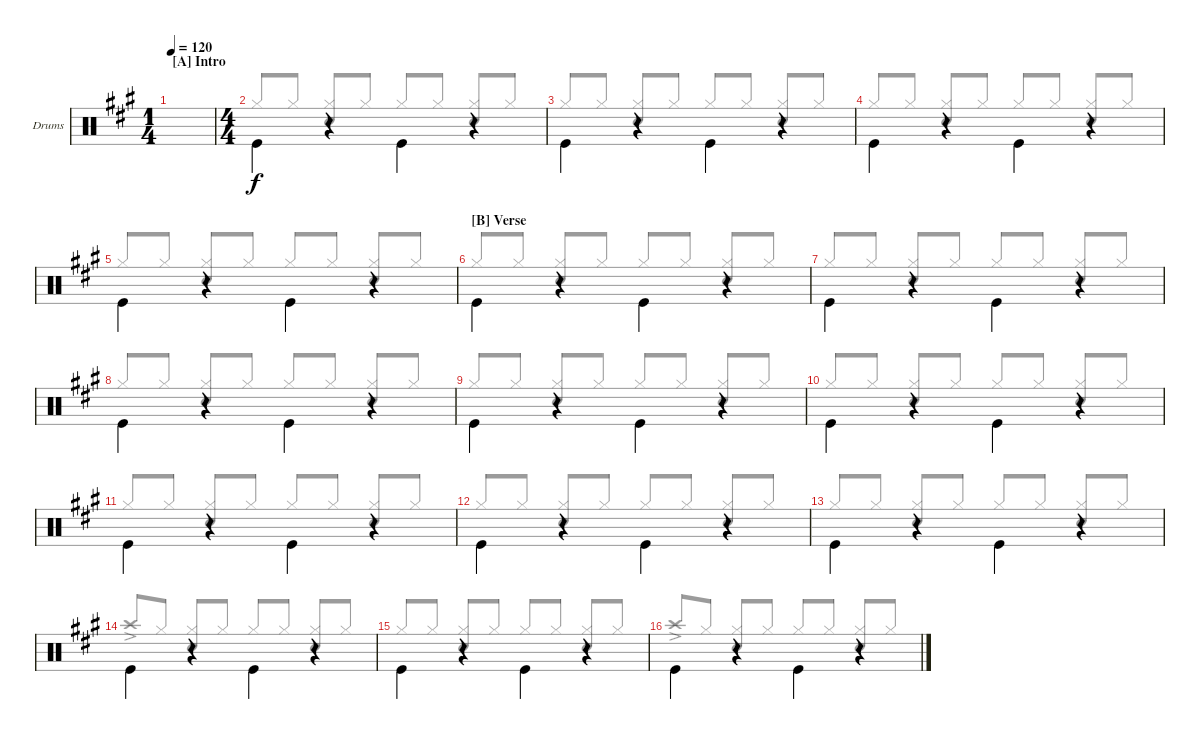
\bracketExtendMode groupsimilarinstruments
\firstSystemTrackNameOrientation horizontal
\otherSystemsTrackNameOrientation horizontal
\track ("Drum" "Drums") {instrument percussion}
\staff {score}
\articulation defaults
\voice
\ts (1 4)
\section ("A" "Intro")
\tempo 120
\clef neutral
\scale
1.08827
\ks a
|
\ts (4 4)
\scale
0.911728 "Kick (hit)".4{beam invert} r.4 "Kick (hit)".4{beam invert} r.4 |
\scale
1.05801 "Kick (hit)".4{beam invert} r.4 "Kick (hit)".4{beam invert} r.4 |
\scale
0.941992 "Kick (hit)".4{beam invert} r.4 "Kick (hit)".4{beam invert} r.4 |
\scale
1.05801 "Kick (hit)".4{beam invert} r.4 "Kick (hit)".4{beam invert} r.4 |
\section ("B" "Verse")
\scale
0.941992 "Kick (hit)".4{beam invert} r.4 "Kick (hit)".4{beam invert} r.4 |
\scale
1.05801 "Kick (hit)".4{beam invert} r.4 "Kick (hit)".4{beam invert} r.4 |
\scale
0.941992 "Kick (hit)".4{beam invert} r.4 "Kick (hit)".4{beam invert} r.4 |
\scale
1.05801 "Kick (hit)".4{beam invert} r.4 "Kick (hit)".4{beam invert} r.4 |
\scale
0.941992 "Kick (hit)".4{beam invert} r.4 "Kick (hit)".4{beam invert} r.4 |
\scale
1.05801 "Kick (hit)".4{beam invert} r.4 "Kick (hit)".4{beam invert} r.4 |
\scale
0.941992 "Kick (hit)".4{beam invert} r.4 "Kick (hit)".4{beam invert} r.4 |
\scale
1.05801 "Kick (hit)".4{beam invert} r.4 "Kick (hit)".4{beam invert} r.4 |
\scale
0.941992 "Kick (hit)".4{beam invert} r.4 "Kick (hit)".4{beam invert} r.4 |
\scale
1.05801 "Kick (hit)".4{beam invert} r.4 "Kick (hit)".4{beam invert} r.4 |
\scale
0.941992 "Kick (hit)".4{beam invert} r.4 "Kick (hit)".4{beam invert} r.4
\voice
\clef neutral
\ottava regular
\simile none
\scale
1.08827
\ks a
|
\scale
0.911728 "Hi-Hat (closed)".8{beam invert} "Hi-Hat (closed)".8 ("Hi-Hat (closed)" "Snare (hit) 2").8{beam invert} "Hi-Hat (closed)".8 "Hi-Hat (closed)".8{beam invert} "Hi-Hat (closed)".8 ("Hi-Hat (closed)" "Snare (hit) 2").8{beam invert} "Hi-Hat (closed)".8 |
\scale
1.05801 "Hi-Hat (closed)".8{beam invert} "Hi-Hat (closed)".8 ("Hi-Hat (closed)" "Snare (hit) 2").8{beam invert} "Hi-Hat (closed)".8 "Hi-Hat (closed)".8{beam invert} "Hi-Hat (closed)".8 ("Hi-Hat (closed)" "Snare (hit) 2").8{beam invert} "Hi-Hat (closed)".8 |
\scale
0.941992 "Hi-Hat (closed)".8{beam invert} "Hi-Hat (closed)".8 ("Hi-Hat (closed)" "Snare (hit) 2").8{beam invert} "Hi-Hat (closed)".8 "Hi-Hat (closed)".8{beam invert} "Hi-Hat (closed)".8 ("Hi-Hat (closed)" "Snare (hit) 2").8{beam invert} "Hi-Hat (closed)".8 |
\scale
1.05801 "Hi-Hat (closed)".8{beam invert} "Hi-Hat (closed)".8 ("Hi-Hat (closed)" "Snare (hit) 2").8{beam invert} "Hi-Hat (closed)".8 "Hi-Hat (closed)".8{beam invert} "Hi-Hat (closed)".8 ("Hi-Hat (closed)" "Snare (hit) 2").8{beam invert} "Hi-Hat (closed)".8 |
\scale
0.941992 "Hi-Hat (closed)".8{beam invert} "Hi-Hat (closed)".8 ("Hi-Hat (closed)" "Snare (hit) 2").8{beam invert} "Hi-Hat (closed)".8 "Hi-Hat (closed)".8{beam invert} "Hi-Hat (closed)".8 ("Hi-Hat (closed)" "Snare (hit) 2").8{beam invert} "Hi-Hat (closed)".8 |
\scale
1.05801 "Hi-Hat (closed)".8{beam invert} "Hi-Hat (closed)".8 ("Hi-Hat (closed)" "Snare (hit) 2").8{beam invert} "Hi-Hat (closed)".8 "Hi-Hat (closed)".8{beam invert} "Hi-Hat (closed)".8 ("Hi-Hat (closed)" "Snare (hit) 2").8{beam invert} "Hi-Hat (closed)".8 |
\scale
0.941992 "Hi-Hat (closed)".8{beam invert} "Hi-Hat (closed)".8 ("Hi-Hat (closed)" "Snare (hit) 2").8{beam invert} "Hi-Hat (closed)".8 "Hi-Hat (closed)".8{beam invert} "Hi-Hat (closed)".8 ("Hi-Hat (closed)" "Snare (hit) 2").8{beam invert} "Hi-Hat (closed)".8 |
\scale
1.05801 "Hi-Hat (closed)".8{beam invert} "Hi-Hat (closed)".8 ("Hi-Hat (closed)" "Snare (hit) 2").8{beam invert} "Hi-Hat (closed)".8 "Hi-Hat (closed)".8{beam invert} "Hi-Hat (closed)".8 ("Hi-Hat (closed)" "Snare (hit) 2").8{beam invert} "Hi-Hat (closed)".8 |
\scale
0.941992 "Hi-Hat (closed)".8{beam invert} "Hi-Hat (closed)".8 ("Hi-Hat (closed)" "Snare (hit) 2").8{beam invert} "Hi-Hat (closed)".8 "Hi-Hat (closed)".8{beam invert} "Hi-Hat (closed)".8 ("Hi-Hat (closed)" "Snare (hit) 2").8{beam invert} "Hi-Hat (closed)".8 |
\scale
1.05801 "Hi-Hat (closed)".8{beam invert} "Hi-Hat (closed)".8 ("Hi-Hat (closed)" "Snare (hit) 2").8{beam invert} "Hi-Hat (closed)".8 "Hi-Hat (closed)".8{beam invert} "Hi-Hat (closed)".8 ("Hi-Hat (closed)" "Snare (hit) 2").8{beam invert} "Hi-Hat (closed)".8 |
\scale
0.941992 "Hi-Hat (closed)".8{beam invert} "Hi-Hat (closed)".8 ("Hi-Hat (closed)" "Snare (hit) 2").8{beam invert} "Hi-Hat (closed)".8 "Hi-Hat (closed)".8{beam invert} "Hi-Hat (closed)".8 ("Hi-Hat (closed)" "Snare (hit) 2").8{beam invert} "Hi-Hat (closed)".8 |
\scale
1.05801 "Hi-Hat (closed)".8{beam invert} "Hi-Hat (closed)".8 ("Hi-Hat (closed)" "Snare (hit) 2").8{beam invert} "Hi-Hat (closed)".8 "Hi-Hat (closed)".8{beam invert} "Hi-Hat (closed)".8 ("Hi-Hat (closed)" "Snare (hit) 2").8{beam invert} "Hi-Hat (closed)".8 |
\scale
0.941992 "Crash high (hit)"{ac}.8{beam invert} "Hi-Hat (closed)".8 ("Hi-Hat (closed)" "Snare (hit) 2").8{beam invert} "Hi-Hat (closed)".8 "Hi-Hat (closed)".8{beam invert} "Hi-Hat (closed)".8 ("Hi-Hat (closed)" "Snare (hit) 2").8{beam invert} "Hi-Hat (closed)".8 |
\scale
1.05801 "Hi-Hat (closed)".8{beam invert} "Hi-Hat (closed)".8 ("Hi-Hat (closed)" "Snare (hit) 2").8{beam invert} "Hi-Hat (closed)".8 "Hi-Hat (closed)".8{beam invert} "Hi-Hat (closed)".8 ("Hi-Hat (closed)" "Snare (hit) 2").8{beam invert} "Hi-Hat (closed)".8 |
\scale
0.941992 "Crash high (hit)"{ac}.8{beam invert} "Hi-Hat (closed)".8 ("Hi-Hat (closed)" "Snare (hit) 2").8{beam invert} "Hi-Hat (closed)".8 "Hi-Hat (closed)".8{beam invert} "Hi-Hat (closed)".8 ("Hi-Hat (closed)" "Snare (hit) 2").8{beam invert} "Hi-Hat (closed)".8
